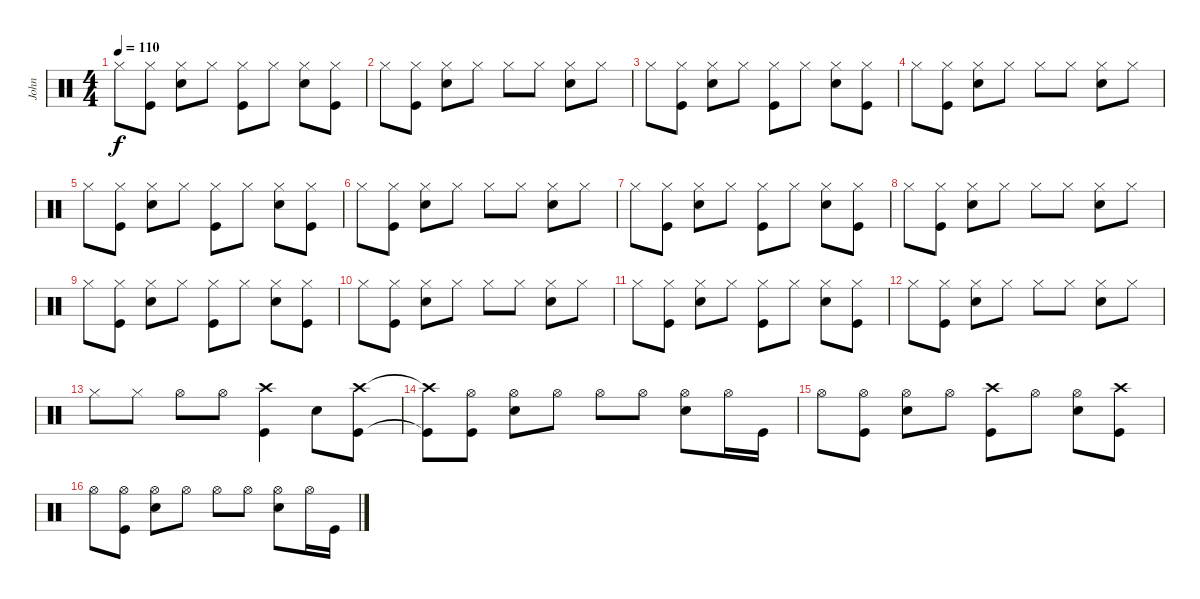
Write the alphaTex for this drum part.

\track ("John" "John") {instrument percussion}
\staff {score}
\articulation defaults
\ts (4 4)
\tempo 110
\clef neutral
\ks c "Hi-Hat (closed)".8{dy f}
("Hi-Hat (closed)" "Kick (hit)").8 ("Hi-Hat (closed)" "Snare (hit) 2").8 "Hi-Hat (closed)".8 ("Hi-Hat (closed)" "Kick (hit)").8 "Hi-Hat (closed)".8 ("Hi-Hat (closed)" "Snare (hit) 2").8 ("Hi-Hat (closed)" "Kick (hit)").8 |
"Hi-Hat (closed)".8 ("Hi-Hat (closed)" "Kick (hit)").8 ("Snare (hit) 2" "Hi-Hat (closed)").8 "Hi-Hat (closed)".8 "Hi-Hat (closed)".8 "Hi-Hat (closed)".8 ("Hi-Hat (closed)" "Snare (hit) 2").8 "Hi-Hat (closed)".8 |
"Hi-Hat (closed)".8 ("Hi-Hat (closed)" "Kick (hit)").8 ("Hi-Hat (closed)" "Snare (hit) 2").8 "Hi-Hat (closed)".8 ("Hi-Hat (closed)" "Kick (hit)").8 "Hi-Hat (closed)".8 ("Hi-Hat (closed)" "Snare (hit) 2").8 ("Hi-Hat (closed)" "Kick (hit)").8 |
"Hi-Hat (closed)".8 ("Hi-Hat (closed)" "Kick (hit)").8 ("Snare (hit) 2" "Hi-Hat (closed)").8 "Hi-Hat (closed)".8 "Hi-Hat (closed)".8 "Hi-Hat (closed)".8 ("Hi-Hat (closed)" "Snare (hit) 2").8 "Hi-Hat (closed)".8 |
"Hi-Hat (closed)".8 ("Hi-Hat (closed)" "Kick (hit)").8 ("Hi-Hat (closed)" "Snare (hit) 2").8 "Hi-Hat (closed)".8 ("Hi-Hat (closed)" "Kick (hit)").8 "Hi-Hat (closed)".8 ("Hi-Hat (closed)" "Snare (hit) 2").8 ("Hi-Hat (closed)" "Kick (hit)").8 |
"Hi-Hat (closed)".8 ("Hi-Hat (closed)" "Kick (hit)").8 ("Snare (hit) 2" "Hi-Hat (closed)").8 "Hi-Hat (closed)".8 "Hi-Hat (closed)".8 "Hi-Hat (closed)".8 ("Hi-Hat (closed)" "Snare (hit) 2").8 "Hi-Hat (closed)".8 |
"Hi-Hat (closed)".8 ("Hi-Hat (closed)" "Kick (hit)").8 ("Hi-Hat (closed)" "Snare (hit) 2").8 "Hi-Hat (closed)".8 ("Hi-Hat (closed)" "Kick (hit)").8 "Hi-Hat (closed)".8 ("Hi-Hat (closed)" "Snare (hit) 2").8 ("Hi-Hat (closed)" "Kick (hit)").8 |
"Hi-Hat (closed)".8 ("Hi-Hat (closed)" "Kick (hit)").8 ("Snare (hit) 2" "Hi-Hat (closed)").8 "Hi-Hat (closed)".8 "Hi-Hat (closed)".8 "Hi-Hat (closed)".8 ("Hi-Hat (closed)" "Snare (hit) 2").8 "Hi-Hat (closed)".8 |
"Hi-Hat (closed)".8 ("Hi-Hat (closed)" "Kick (hit)").8 ("Hi-Hat (closed)" "Snare (hit) 2").8 "Hi-Hat (closed)".8 ("Hi-Hat (closed)" "Kick (hit)").8 "Hi-Hat (closed)".8 ("Hi-Hat (closed)" "Snare (hit) 2").8 ("Hi-Hat (closed)" "Kick (hit)").8 |
"Hi-Hat (closed)".8 ("Hi-Hat (closed)" "Kick (hit)").8 ("Snare (hit) 2" "Hi-Hat (closed)").8 "Hi-Hat (closed)".8 "Hi-Hat (closed)".8 "Hi-Hat (closed)".8 ("Hi-Hat (closed)" "Snare (hit) 2").8 "Hi-Hat (closed)".8 |
"Hi-Hat (closed)".8 ("Hi-Hat (closed)" "Kick (hit)").8 ("Hi-Hat (closed)" "Snare (hit) 2").8 "Hi-Hat (closed)".8 ("Hi-Hat (closed)" "Kick (hit)").8 "Hi-Hat (closed)".8 ("Hi-Hat (closed)" "Snare (hit) 2").8 ("Hi-Hat (closed)" "Kick (hit)").8 |
"Hi-Hat (closed)".8 ("Hi-Hat (closed)" "Kick (hit)").8 ("Snare (hit) 2" "Hi-Hat (closed)").8 "Hi-Hat (closed)".8 "Hi-Hat (closed)".8 "Hi-Hat (closed)".8 ("Hi-Hat (closed)" "Snare (hit) 2").8 "Hi-Hat (closed)".8 |
"Hi-Hat (closed)".8 "Hi-Hat (closed)".8 "Hi-Hat (open)".8 "Hi-Hat (open)".8 ("Crash high (hit)" "Kick (hit)").4 "Snare (hit) 2".8 ("Crash high (hit)" "Kick (hit)").8 |
("Crash high (hit)"{t} "Kick (hit)"{t}).8 ("Hi-Hat (open)" "Kick (hit)").8 ("Hi-Hat (open)" "Snare (hit) 2").8 "Hi-Hat (open)".8 "Hi-Hat (open)".8 "Hi-Hat (open)".8 ("Hi-Hat (open)" "Snare (hit) 2").8 "Hi-Hat (open)".16 "Kick (hit)".16 |
"Hi-Hat (open)".8 ("Hi-Hat (open)" "Kick (hit)").8 ("Hi-Hat (open)" "Snare (hit) 2").8 "Hi-Hat (open)".8 ("Crash high (hit)" "Kick (hit)").8 "Hi-Hat (open)".8 ("Hi-Hat (open)" "Snare (hit) 2").8 ("Crash high (hit)" "Kick (hit)").8 |
"Hi-Hat (open)".8 ("Hi-Hat (open)" "Kick (hit)").8 ("Hi-Hat (open)" "Snare (hit) 2").8 "Hi-Hat (open)".8 "Hi-Hat (open)".8 "Hi-Hat (open)".8 ("Hi-Hat (open)" "Snare (hit) 2").8 "Hi-Hat (open)".16 "Kick (hit)".16
